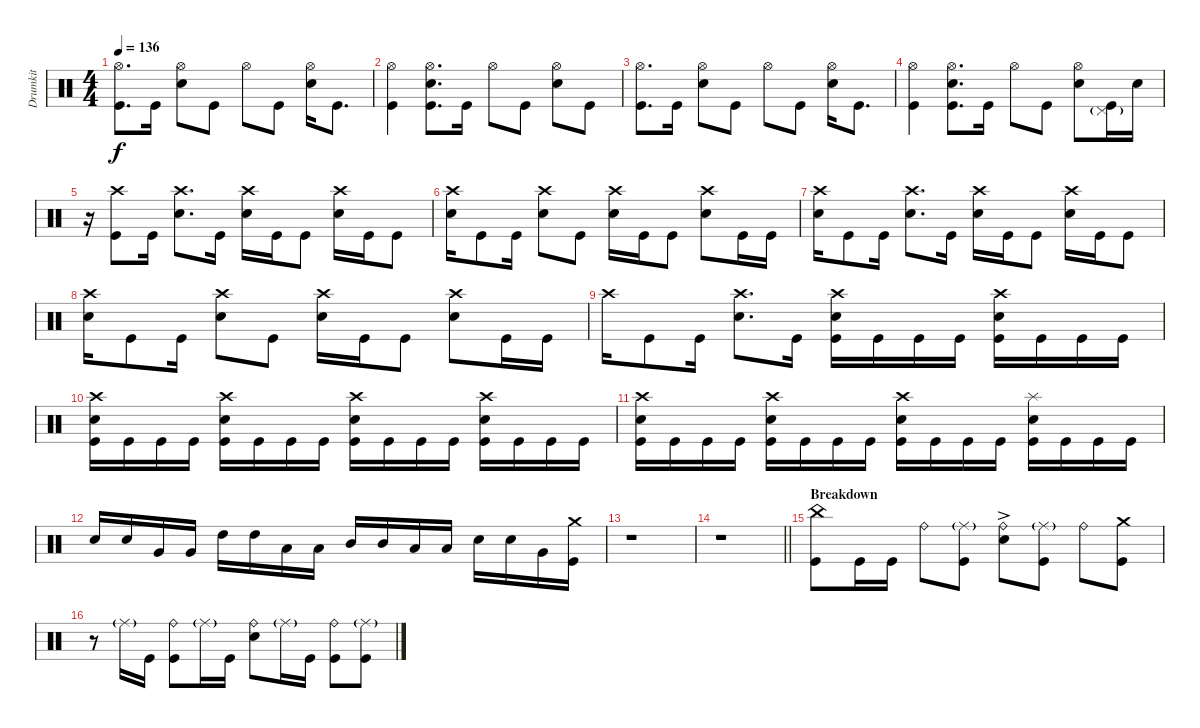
\track ("Drumkit" "Drumkit") {instrument percussion}
\staff {score}
\articulation defaults
\ts (4 4)
\tempo 136
\clef neutral
\ks c
("Hi-Hat (open)" "Kick (hit)").8{d dy f} "Kick (hit)".16 ("Hi-Hat (open)" "Snare (hit) 2").8 "Kick (hit)".8 "Hi-Hat (open)".8 "Kick (hit)".8 ("Hi-Hat (open)" "Snare (hit) 2").16 "Kick (hit)".8{d} |
("Hi-Hat (open)" "Kick (hit)").4 ("Hi-Hat (open)" "Snare (hit) 2" "Kick (hit)").8{d} "Kick (hit)".16 "Hi-Hat (open)".8 "Kick (hit)".8 ("Hi-Hat (open)" "Snare (hit) 2").8 "Kick (hit)".8 |
("Hi-Hat (open)" "Kick (hit)").8{d} "Kick (hit)".16 ("Hi-Hat (open)" "Snare (hit) 2").8 "Kick (hit)".8 "Hi-Hat (open)".8 "Kick (hit)".8 ("Hi-Hat (open)" "Snare (hit) 2").16 "Kick (hit)".8{d} |
("Hi-Hat (open)" "Kick (hit)").4 ("Hi-Hat (open)" "Snare (hit) 2" "Kick (hit)").8{d} "Kick (hit)".16 "Hi-Hat (open)".8 "Kick (hit)".8 ("Hi-Hat (open)" "Snare (hit) 2").8 ("Kick (hit)" "Pedal Hi-Hat (hit)"{g}).16 "Snare (hit) 2".16 |
r.16 ("Kick (hit)" "Crash high (hit)").8 "Kick (hit)".16 ("Snare (hit) 2" "Crash high (hit)").8{d} "Kick (hit)".16 ("Snare (hit) 2" "Crash high (hit)").16 "Kick (hit)".16 "Kick (hit)".8 ("Snare (hit) 2" "Crash high (hit)").16 "Kick (hit)".16 "Kick (hit)".8 |
("Snare (hit) 2" "Crash high (hit)").16 "Kick (hit)".8 "Kick (hit)".16 ("Snare (hit) 2" "Crash high (hit)").8 "Kick (hit)".8 ("Snare (hit) 2" "Crash high (hit)").16 "Kick (hit)".16 "Kick (hit)".8 ("Snare (hit) 2" "Crash high (hit)").8 "Kick (hit)".16 "Kick (hit)".16 |
("Snare (hit) 2" "Crash high (hit)").16 "Kick (hit)".8 "Kick (hit)".16 ("Snare (hit) 2" "Crash high (hit)").8{d} "Kick (hit)".16 ("Snare (hit) 2" "Crash high (hit)").16 "Kick (hit)".16 "Kick (hit)".8 ("Snare (hit) 2" "Crash high (hit)").16 "Kick (hit)".16 "Kick (hit)".8 |
("Snare (hit) 2" "Crash high (hit)").16 "Kick (hit)".8 "Kick (hit)".16 ("Snare (hit) 2" "Crash high (hit)").8 "Kick (hit)".8 ("Snare (hit) 2" "Crash high (hit)").16 "Kick (hit)".16 "Kick (hit)".8 ("Snare (hit) 2" "Crash high (hit)").8 "Kick (hit)".16 "Kick (hit)".16 |
"Crash high (hit)".16 "Kick (hit)".8 "Kick (hit)".16 ("Snare (hit) 2" "Crash high (hit)").8{d} "Kick (hit)".16 ("Snare (hit) 2" "Crash high (hit)" "Kick (hit)").16 "Kick (hit)".16 "Kick (hit)".16 "Kick (hit)".16 ("Snare (hit) 2" "Crash high (hit)" "Kick (hit)").16 "Kick (hit)".16 "Kick (hit)".16 "Kick (hit)".16 |
("Snare (hit) 2" "Crash high (hit)" "Kick (hit)").16 "Kick (hit)".16 "Kick (hit)".16 "Kick (hit)".16 ("Snare (hit) 2" "Crash high (hit)" "Kick (hit)").16 "Kick (hit)".16 "Kick (hit)".16 "Kick (hit)".16 ("Snare (hit) 2" "Crash high (hit)" "Kick (hit)").16 "Kick (hit)".16 "Kick (hit)".16 "Kick (hit)".16 ("Snare (hit) 2" "Crash high (hit)" "Kick (hit)").16 "Kick (hit)".16 "Kick (hit)".16 "Kick (hit)".16 |
("Snare (hit) 2" "Crash high (hit)" "Kick (hit)").16 "Kick (hit)".16 "Kick (hit)".16 "Kick (hit)".16 ("Snare (hit) 2" "Crash high (hit)" "Kick (hit)").16 "Kick (hit)".16 "Kick (hit)".16 "Kick (hit)".16 ("Snare (hit) 2" "Crash high (hit)" "Kick (hit)").16 "Kick (hit)".16 "Kick (hit)".16 "Kick (hit)".16 ("Snare (hit) 2" "Kick (hit)" "Splash (hit)").16 "Kick (hit)".16 "Kick (hit)".16 "Kick (hit)".16 |
"Snare (hit) 2".16 "Snare (hit) 2".16 "Very Low Tom (hit)".16 "Very Low Tom (hit)".16 "High Tom (hit)".16 "High Tom (hit)".16 "Low Floor Tom (hit)".16 "Low Floor Tom (hit)".16 "Mid Tom (hit)".16 "Mid Tom (hit)".16 "Low Floor Tom (hit)".16 "Low Floor Tom (hit)".16 "Snare (hit) 2".16 "Snare (hit) 2".16 "Very Low Tom (hit)".16 ("Kick (hit)" "Crash medium (hit)").16 |
r.1 |
\barLineRight lightlight
r.1 |
\section ("" "Breakdown")
("Kick (hit)" "China (hit)").8 "Kick (hit)".16 "Kick (hit)".16 "Ride (bell)".8 ("Kick (hit)" "Ride (middle)"{g}).8 ("Ride (bell)" "Snare (hit) 2"{ac}).8 ("Kick (hit)" "Ride (middle)"{g}).8 "Ride (bell)".8 ("Kick (hit)" "Crash medium (hit)").8 |
r.8 "Ride (middle)"{g}.16 "Kick (hit)".16 ("Ride (bell)" "Kick (hit)").8 "Ride (middle)"{g}.16 "Kick (hit)".16 ("Ride (bell)" "Snare (hit) 2").8 "Ride (middle)"{g}.16 "Kick (hit)".16 ("Ride (bell)" "Kick (hit)").8 ("Kick (hit)" "Ride (middle)"{g}).8
